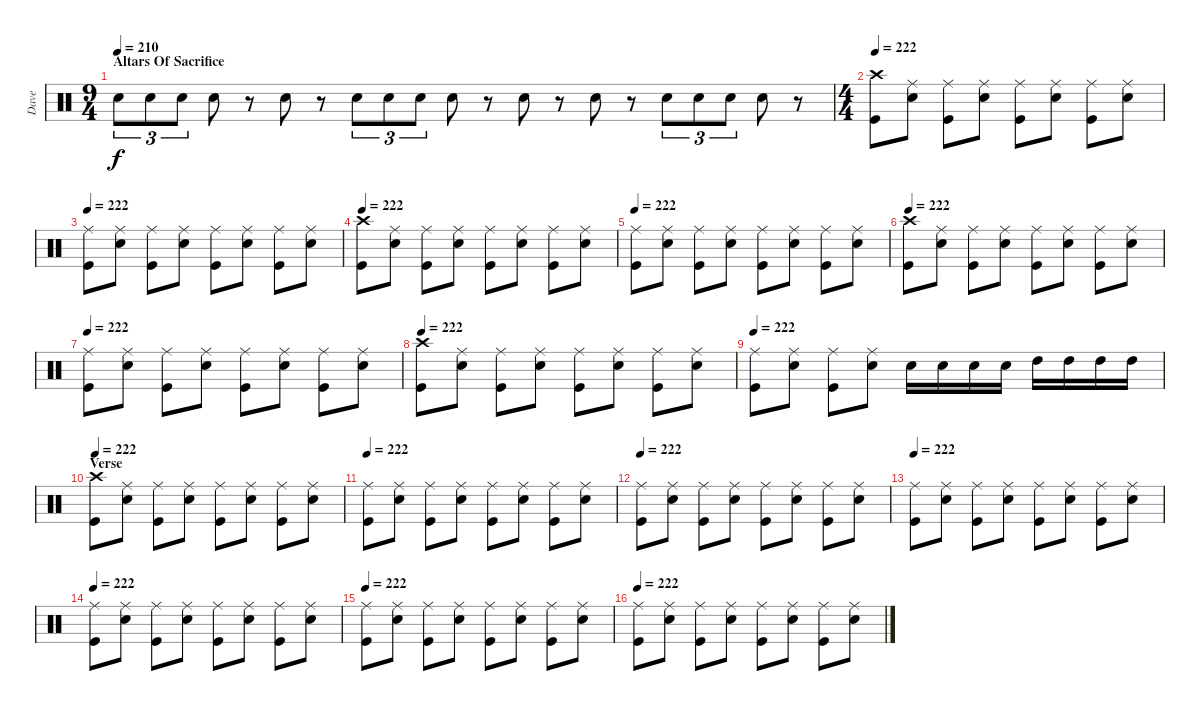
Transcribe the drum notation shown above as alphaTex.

\track ("Dave" "Dave") {instrument percussion}
\staff {score}
\articulation defaults
\ts (9 4)
\section ("" "Altars Of Sacrifice")
\tempo 210
\tempo 166
\tempo 210
\clef neutral
\ks c "Snare (hit) 2".8{tu (3 2) dy f} "Snare (hit) 2".8{tu (3 2)} "Snare (hit) 2".8{tu (3 2)} "Snare (hit) 2".8
r.8 "Snare (hit) 2".8 r.8 "Snare (hit) 2".8{tu (3 2)} "Snare (hit) 2".8{tu (3 2)} "Snare (hit) 2".8{tu (3 2)} "Snare (hit) 2".8 r.8 "Snare (hit) 2".8 r.8 "Snare (hit) 2".8 r.8 "Snare (hit) 2".8{tu (3 2)} "Snare (hit) 2".8{tu (3 2)} "Snare (hit) 2".8{tu (3 2)} "Snare (hit) 2".8 r.8 |
\ts (4 4)
\tempo 222
("Crash high (hit)" "Kick (hit)").8 ("Ride (middle)" "Snare (hit) 2").8 ("Ride (middle)" "Kick (hit)").8 ("Ride (middle)" "Snare (hit) 2").8 ("Ride (middle)" "Kick (hit)").8 ("Ride (middle)" "Snare (hit) 2").8 ("Ride (middle)" "Kick (hit)").8 ("Ride (middle)" "Snare (hit) 2").8 |
\tempo 222
("Ride (middle)" "Kick (hit)").8 ("Ride (middle)" "Snare (hit) 2").8 ("Ride (middle)" "Kick (hit)").8 ("Ride (middle)" "Snare (hit) 2").8 ("Ride (middle)" "Kick (hit)").8 ("Ride (middle)" "Snare (hit) 2").8 ("Ride (middle)" "Kick (hit)").8 ("Ride (middle)" "Snare (hit) 2").8 |
\tempo 222
("Crash high (hit)" "Kick (hit)").8 ("Ride (middle)" "Snare (hit) 2").8 ("Ride (middle)" "Kick (hit)").8 ("Ride (middle)" "Snare (hit) 2").8 ("Ride (middle)" "Kick (hit)").8 ("Ride (middle)" "Snare (hit) 2").8 ("Ride (middle)" "Kick (hit)").8 ("Ride (middle)" "Snare (hit) 2").8 |
\tempo 222
("Ride (middle)" "Kick (hit)").8 ("Ride (middle)" "Snare (hit) 2").8 ("Ride (middle)" "Kick (hit)").8 ("Ride (middle)" "Snare (hit) 2").8 ("Ride (middle)" "Kick (hit)").8 ("Ride (middle)" "Snare (hit) 2").8 ("Ride (middle)" "Kick (hit)").8 ("Ride (middle)" "Snare (hit) 2").8 |
\tempo 222
("Crash high (hit)" "Kick (hit)").8 ("Ride (middle)" "Snare (hit) 2").8 ("Ride (middle)" "Kick (hit)").8 ("Ride (middle)" "Snare (hit) 2").8 ("Ride (middle)" "Kick (hit)").8 ("Ride (middle)" "Snare (hit) 2").8 ("Ride (middle)" "Kick (hit)").8 ("Ride (middle)" "Snare (hit) 2").8 |
\tempo 222
("Ride (middle)" "Kick (hit)").8 ("Ride (middle)" "Snare (hit) 2").8 ("Ride (middle)" "Kick (hit)").8 ("Ride (middle)" "Snare (hit) 2").8 ("Ride (middle)" "Kick (hit)").8 ("Ride (middle)" "Snare (hit) 2").8 ("Ride (middle)" "Kick (hit)").8 ("Ride (middle)" "Snare (hit) 2").8 |
\tempo 222
("Crash high (hit)" "Kick (hit)").8 ("Ride (middle)" "Snare (hit) 2").8 ("Ride (middle)" "Kick (hit)").8 ("Ride (middle)" "Snare (hit) 2").8 ("Ride (middle)" "Kick (hit)").8 ("Ride (middle)" "Snare (hit) 2").8 ("Ride (middle)" "Kick (hit)").8 ("Ride (middle)" "Snare (hit) 2").8 |
\tempo 222
("Ride (middle)" "Kick (hit)").8 ("Ride (middle)" "Snare (hit) 2").8 ("Ride (middle)" "Kick (hit)").8 ("Ride (middle)" "Snare (hit) 2").8 "Snare (hit) 2".16 "Snare (hit) 2".16 "Snare (hit) 2".16 "Snare (hit) 2".16 "High Tom (hit)".16 "High Tom (hit)".16 "High Tom (hit)".16 "High Tom (hit)".16 |
\section ("" "Verse")
\tempo 222
("Crash high (hit)" "Kick (hit)").8 ("Ride (middle)" "Snare (hit) 2").8 ("Ride (middle)" "Kick (hit)").8 ("Ride (middle)" "Snare (hit) 2").8 ("Ride (middle)" "Kick (hit)").8 ("Ride (middle)" "Snare (hit) 2").8 ("Ride (middle)" "Kick (hit)").8 ("Ride (middle)" "Snare (hit) 2").8 |
\tempo 222
("Ride (middle)" "Kick (hit)").8 ("Ride (middle)" "Snare (hit) 2").8 ("Ride (middle)" "Kick (hit)").8 ("Ride (middle)" "Snare (hit) 2").8 ("Ride (middle)" "Kick (hit)").8 ("Ride (middle)" "Snare (hit) 2").8 ("Ride (middle)" "Kick (hit)").8 ("Ride (middle)" "Snare (hit) 2").8 |
\tempo 222
("Ride (middle)" "Kick (hit)").8 ("Ride (middle)" "Snare (hit) 2").8 ("Ride (middle)" "Kick (hit)").8 ("Ride (middle)" "Snare (hit) 2").8 ("Ride (middle)" "Kick (hit)").8 ("Ride (middle)" "Snare (hit) 2").8 ("Ride (middle)" "Kick (hit)").8 ("Ride (middle)" "Snare (hit) 2").8 |
\tempo 222
("Ride (middle)" "Kick (hit)").8 ("Ride (middle)" "Snare (hit) 2").8 ("Ride (middle)" "Kick (hit)").8 ("Ride (middle)" "Snare (hit) 2").8 ("Ride (middle)" "Kick (hit)").8 ("Ride (middle)" "Snare (hit) 2").8 ("Ride (middle)" "Kick (hit)").8 ("Ride (middle)" "Snare (hit) 2").8 |
\tempo 222
("Ride (middle)" "Kick (hit)").8 ("Ride (middle)" "Snare (hit) 2").8 ("Ride (middle)" "Kick (hit)").8 ("Ride (middle)" "Snare (hit) 2").8 ("Ride (middle)" "Kick (hit)").8 ("Ride (middle)" "Snare (hit) 2").8 ("Ride (middle)" "Kick (hit)").8 ("Ride (middle)" "Snare (hit) 2").8 |
\tempo 222
("Ride (middle)" "Kick (hit)").8 ("Ride (middle)" "Snare (hit) 2").8 ("Ride (middle)" "Kick (hit)").8 ("Ride (middle)" "Snare (hit) 2").8 ("Ride (middle)" "Kick (hit)").8 ("Ride (middle)" "Snare (hit) 2").8 ("Ride (middle)" "Kick (hit)").8 ("Ride (middle)" "Snare (hit) 2").8 |
\tempo 222
("Ride (middle)" "Kick (hit)").8 ("Ride (middle)" "Snare (hit) 2").8 ("Ride (middle)" "Kick (hit)").8 ("Ride (middle)" "Snare (hit) 2").8 ("Ride (middle)" "Kick (hit)").8 ("Ride (middle)" "Snare (hit) 2").8 ("Ride (middle)" "Kick (hit)").8 ("Ride (middle)" "Snare (hit) 2").8
